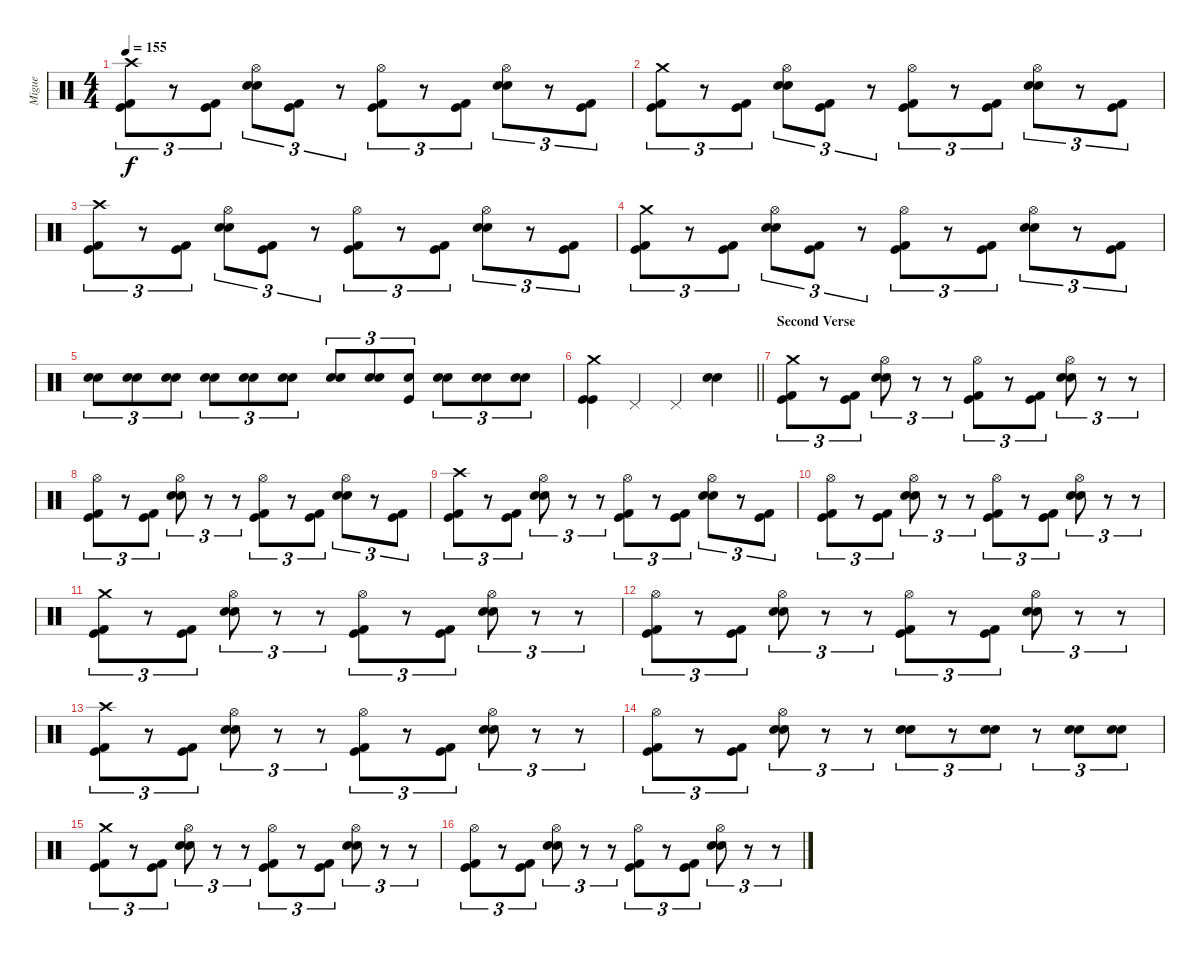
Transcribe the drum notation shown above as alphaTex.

\track ("Migue" "Migue") {instrument percussion}
\staff {score}
\articulation defaults
\ts (4 4)
\tempo 155
\clef neutral
\ks c
("Crash high (hit)" "Kick (hit) 2" "Kick (hit)").8{tu (3 2) dy f} r.8{tu (3 2)} ("Kick (hit) 2" "Kick (hit)").8{tu (3 2)} ("Hi-Hat (open)" "Snare (hit) 2" "Snare (hit) 2").8{tu (3 2)} ("Kick (hit) 2" "Kick (hit)").8{tu (3 2)} r.8{tu (3 2)} ("Hi-Hat (open)" "Kick (hit) 2" "Kick (hit)").8{tu (3 2)} r.8{tu (3 2)} ("Kick (hit) 2" "Kick (hit)").8{tu (3 2)} ("Hi-Hat (open)" "Snare (hit) 2" "Snare (hit) 2").8{tu (3 2)} r.8{tu (3 2)} ("Kick (hit) 2" "Kick (hit)").8{tu (3 2)} |
("Crash medium (hit)" "Kick (hit) 2" "Kick (hit)").8{tu (3 2)} r.8{tu (3 2)} ("Kick (hit) 2" "Kick (hit)").8{tu (3 2)} ("Hi-Hat (open)" "Snare (hit) 2" "Snare (hit) 2").8{tu (3 2)} ("Kick (hit) 2" "Kick (hit)").8{tu (3 2)} r.8{tu (3 2)} ("Hi-Hat (open)" "Kick (hit) 2" "Kick (hit)").8{tu (3 2)} r.8{tu (3 2)} ("Kick (hit) 2" "Kick (hit)").8{tu (3 2)} ("Hi-Hat (open)" "Snare (hit) 2" "Snare (hit) 2").8{tu (3 2)} r.8{tu (3 2)} ("Kick (hit) 2" "Kick (hit)").8{tu (3 2)} |
("Crash high (hit)" "Kick (hit) 2" "Kick (hit)").8{tu (3 2)} r.8{tu (3 2)} ("Kick (hit) 2" "Kick (hit)").8{tu (3 2)} ("Hi-Hat (open)" "Snare (hit) 2" "Snare (hit) 2").8{tu (3 2)} ("Kick (hit) 2" "Kick (hit)").8{tu (3 2)} r.8{tu (3 2)} ("Hi-Hat (open)" "Kick (hit) 2" "Kick (hit)").8{tu (3 2)} r.8{tu (3 2)} ("Kick (hit) 2" "Kick (hit)").8{tu (3 2)} ("Hi-Hat (open)" "Snare (hit) 2" "Snare (hit) 2").8{tu (3 2)} r.8{tu (3 2)} ("Kick (hit) 2" "Kick (hit)").8{tu (3 2)} |
("Crash medium (hit)" "Kick (hit) 2" "Kick (hit)").8{tu (3 2)} r.8{tu (3 2)} ("Kick (hit) 2" "Kick (hit)").8{tu (3 2)} ("Hi-Hat (open)" "Snare (hit) 2" "Snare (hit) 2").8{tu (3 2)} ("Kick (hit) 2" "Kick (hit)").8{tu (3 2)} r.8{tu (3 2)} ("Hi-Hat (open)" "Kick (hit) 2" "Kick (hit)").8{tu (3 2)} r.8{tu (3 2)} ("Kick (hit) 2" "Kick (hit)").8{tu (3 2)} ("Hi-Hat (open)" "Snare (hit) 2" "Snare (hit) 2").8{tu (3 2)} r.8{tu (3 2)} ("Kick (hit) 2" "Kick (hit)").8{tu (3 2)} |
("Snare (hit) 2" "Snare (hit) 2").8{tu (3 2)} ("Snare (hit) 2" "Snare (hit) 2").8{tu (3 2)} ("Snare (hit) 2" "Snare (hit) 2").8{tu (3 2)} ("Snare (hit) 2" "Snare (hit) 2").8{tu (3 2)} ("Snare (hit) 2" "Snare (hit) 2").8{tu (3 2)} ("Snare (hit) 2" "Snare (hit) 2").8{tu (3 2)} ("Snare (hit) 2" "Snare (hit) 2").8{tu (3 2)} ("Snare (hit) 2" "Snare (hit) 2").8{tu (3 2)} ("Snare (hit) 2" "Kick (hit)").8{tu (3 2)} ("Snare (hit) 2" "Snare (hit) 2").8{tu (3 2)} ("Snare (hit) 2" "Snare (hit) 2").8{tu (3 2)} ("Snare (hit) 2" "Snare (hit) 2").8{tu (3 2)} |
\barLineRight lightlight
("Crash medium (hit)" "Kick (hit)" "Kick (hit)").4 "Pedal Hi-Hat (hit)".4 "Pedal Hi-Hat (hit)".4 ("Snare (hit) 2" "Snare (hit) 2").4 |
\section ("" "Second Verse")
("Crash medium (hit)" "Kick (hit) 2" "Kick (hit)").8{tu (3 2)} r.8{tu (3 2)} ("Kick (hit) 2" "Kick (hit)").8{tu (3 2)} ("Hi-Hat (open)" "Snare (hit) 2" "Snare (hit) 2").8{tu (3 2)} r.8{tu (3 2)} r.8{tu (3 2)} ("Hi-Hat (open)" "Kick (hit) 2" "Kick (hit)").8{tu (3 2)} r.8{tu (3 2)} ("Kick (hit) 2" "Kick (hit)").8{tu (3 2)} ("Hi-Hat (open)" "Snare (hit) 2" "Snare (hit) 2").8{tu (3 2)} r.8{tu (3 2)} r.8{tu (3 2)} |
("Hi-Hat (open)" "Kick (hit) 2" "Kick (hit)").8{tu (3 2)} r.8{tu (3 2)} ("Kick (hit) 2" "Kick (hit)").8{tu (3 2)} ("Hi-Hat (open)" "Snare (hit) 2" "Snare (hit) 2").8{tu (3 2)} r.8{tu (3 2)} r.8{tu (3 2)} ("Hi-Hat (open)" "Kick (hit) 2" "Kick (hit)").8{tu (3 2)} r.8{tu (3 2)} ("Kick (hit) 2" "Kick (hit)").8{tu (3 2)} ("Hi-Hat (open)" "Snare (hit) 2" "Snare (hit) 2").8{tu (3 2)} r.8{tu (3 2)} ("Kick (hit) 2" "Kick (hit)").8{tu (3 2)} |
("Crash high (hit)" "Kick (hit) 2" "Kick (hit)").8{tu (3 2)} r.8{tu (3 2)} ("Kick (hit) 2" "Kick (hit)").8{tu (3 2)} ("Hi-Hat (open)" "Snare (hit) 2" "Snare (hit) 2").8{tu (3 2)} r.8{tu (3 2)} r.8{tu (3 2)} ("Hi-Hat (open)" "Kick (hit) 2" "Kick (hit)").8{tu (3 2)} r.8{tu (3 2)} ("Kick (hit) 2" "Kick (hit)").8{tu (3 2)} ("Hi-Hat (open)" "Snare (hit) 2" "Snare (hit) 2").8{tu (3 2)} r.8{tu (3 2)} ("Kick (hit) 2" "Kick (hit)").8{tu (3 2)} |
("Hi-Hat (open)" "Kick (hit) 2" "Kick (hit)").8{tu (3 2)} r.8{tu (3 2)} ("Kick (hit) 2" "Kick (hit)").8{tu (3 2)} ("Hi-Hat (open)" "Snare (hit) 2" "Snare (hit) 2").8{tu (3 2)} r.8{tu (3 2)} r.8{tu (3 2)} ("Hi-Hat (open)" "Kick (hit) 2" "Kick (hit)").8{tu (3 2)} r.8{tu (3 2)} ("Kick (hit) 2" "Kick (hit)").8{tu (3 2)} ("Hi-Hat (open)" "Snare (hit) 2" "Snare (hit) 2").8{tu (3 2)} r.8{tu (3 2)} r.8{tu (3 2)} |
("Crash medium (hit)" "Kick (hit) 2" "Kick (hit)").8{tu (3 2)} r.8{tu (3 2)} ("Kick (hit) 2" "Kick (hit)").8{tu (3 2)} ("Hi-Hat (open)" "Snare (hit) 2" "Snare (hit) 2").8{tu (3 2)} r.8{tu (3 2)} r.8{tu (3 2)} ("Hi-Hat (open)" "Kick (hit) 2" "Kick (hit)").8{tu (3 2)} r.8{tu (3 2)} ("Kick (hit) 2" "Kick (hit)").8{tu (3 2)} ("Hi-Hat (open)" "Snare (hit) 2" "Snare (hit) 2").8{tu (3 2)} r.8{tu (3 2)} r.8{tu (3 2)} |
("Hi-Hat (open)" "Kick (hit) 2" "Kick (hit)").8{tu (3 2)} r.8{tu (3 2)} ("Kick (hit) 2" "Kick (hit)").8{tu (3 2)} ("Hi-Hat (open)" "Snare (hit) 2" "Snare (hit) 2").8{tu (3 2)} r.8{tu (3 2)} r.8{tu (3 2)} ("Hi-Hat (open)" "Kick (hit) 2" "Kick (hit)").8{tu (3 2)} r.8{tu (3 2)} ("Kick (hit) 2" "Kick (hit)").8{tu (3 2)} ("Hi-Hat (open)" "Snare (hit) 2" "Snare (hit) 2").8{tu (3 2)} r.8{tu (3 2)} r.8{tu (3 2)} |
("Crash high (hit)" "Kick (hit) 2" "Kick (hit)").8{tu (3 2)} r.8{tu (3 2)} ("Kick (hit) 2" "Kick (hit)").8{tu (3 2)} ("Hi-Hat (open)" "Snare (hit) 2" "Snare (hit) 2").8{tu (3 2)} r.8{tu (3 2)} r.8{tu (3 2)} ("Hi-Hat (open)" "Kick (hit) 2" "Kick (hit)").8{tu (3 2)} r.8{tu (3 2)} ("Kick (hit) 2" "Kick (hit)").8{tu (3 2)} ("Hi-Hat (open)" "Snare (hit) 2" "Snare (hit) 2").8{tu (3 2)} r.8{tu (3 2)} r.8{tu (3 2)} |
("Hi-Hat (open)" "Kick (hit) 2" "Kick (hit)").8{tu (3 2)} r.8{tu (3 2)} ("Kick (hit) 2" "Kick (hit)").8{tu (3 2)} ("Hi-Hat (open)" "Snare (hit) 2" "Snare (hit) 2").8{tu (3 2)} r.8{tu (3 2)} r.8{tu (3 2)} ("Snare (hit) 2" "Snare (hit) 2").8{tu (3 2)} r.8{tu (3 2)} ("Snare (hit) 2" "Snare (hit) 2").8{tu (3 2)} r.8{tu (3 2)} ("Snare (hit) 2" "Snare (hit) 2").8{tu (3 2)} ("Snare (hit) 2" "Snare (hit) 2").8{tu (3 2)} |
("Crash medium (hit)" "Kick (hit) 2" "Kick (hit)").8{tu (3 2)} r.8{tu (3 2)} ("Kick (hit) 2" "Kick (hit)").8{tu (3 2)} ("Hi-Hat (open)" "Snare (hit) 2" "Snare (hit) 2").8{tu (3 2)} r.8{tu (3 2)} r.8{tu (3 2)} ("Hi-Hat (open)" "Kick (hit) 2" "Kick (hit)").8{tu (3 2)} r.8{tu (3 2)} ("Kick (hit) 2" "Kick (hit)").8{tu (3 2)} ("Hi-Hat (open)" "Snare (hit) 2" "Snare (hit) 2").8{tu (3 2)} r.8{tu (3 2)} r.8{tu (3 2)} |
("Hi-Hat (open)" "Kick (hit) 2" "Kick (hit)").8{tu (3 2)} r.8{tu (3 2)} ("Kick (hit) 2" "Kick (hit)").8{tu (3 2)} ("Hi-Hat (open)" "Snare (hit) 2" "Snare (hit) 2").8{tu (3 2)} r.8{tu (3 2)} r.8{tu (3 2)} ("Hi-Hat (open)" "Kick (hit) 2" "Kick (hit)").8{tu (3 2)} r.8{tu (3 2)} ("Kick (hit) 2" "Kick (hit)").8{tu (3 2)} ("Hi-Hat (open)" "Snare (hit) 2" "Snare (hit) 2").8{tu (3 2)} r.8{tu (3 2)} r.8{tu (3 2)}
